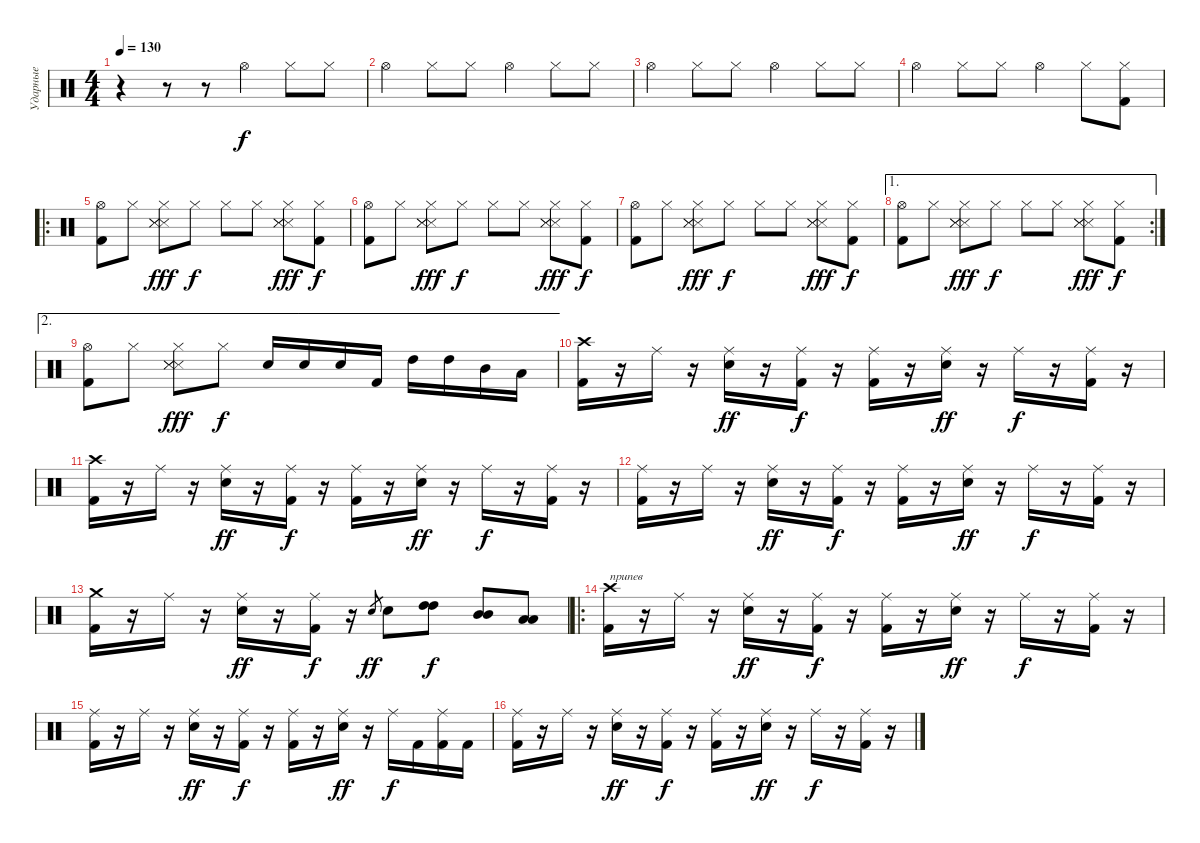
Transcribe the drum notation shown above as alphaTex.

\track ("Ударные" "Ударные") {instrument percussion}
\staff {score}
\articulation defaults
\ts (4 4)
\tempo 130
\clef neutral
\ks c
r.4{dy f} r.8 r.8 "Hi-Hat (open)".4 "Hi-Hat (closed)".8 "Hi-Hat (closed)".8 |
"Hi-Hat (open)".4 "Hi-Hat (closed)".8 "Hi-Hat (closed)".8 "Hi-Hat (open)".4 "Hi-Hat (closed)".8 "Hi-Hat (closed)".8 |
"Hi-Hat (open)".4 "Hi-Hat (closed)".8 "Hi-Hat (closed)".8 "Hi-Hat (open)".4 "Hi-Hat (closed)".8 "Hi-Hat (closed)".8 |
"Hi-Hat (open)".4 "Hi-Hat (closed)".8 "Hi-Hat (closed)".8 "Hi-Hat (open)".4 "Hi-Hat (closed)".8 ("Kick (hit) 2" "Hi-Hat (closed)").8 |
\ro
("Kick (hit) 2" "Hi-Hat (open)").8 "Hi-Hat (closed)".8 ("Hi-Hat (closed)" "Snare (side stick) 3" "Snare (side stick) 3" "Snare (side stick) 3").8{dy fff} "Hi-Hat (closed)".8{dy f} "Hi-Hat (closed)".8 "Hi-Hat (closed)".8 ("Hi-Hat (closed)" "Snare (side stick) 3" "Snare (side stick) 3" "Snare (side stick) 3").8{dy fff} ("Hi-Hat (closed)" "Kick (hit) 2").8{dy f} |
("Kick (hit) 2" "Hi-Hat (open)").8 "Hi-Hat (closed)".8 ("Hi-Hat (closed)" "Snare (side stick) 3" "Snare (side stick) 3" "Snare (side stick) 3").8{dy fff} "Hi-Hat (closed)".8{dy f} "Hi-Hat (closed)".8 "Hi-Hat (closed)".8 ("Hi-Hat (closed)" "Snare (side stick) 3" "Snare (side stick) 3" "Snare (side stick) 3").8{dy fff} ("Hi-Hat (closed)" "Kick (hit) 2").8{dy f} |
("Kick (hit) 2" "Hi-Hat (open)").8 "Hi-Hat (closed)".8 ("Hi-Hat (closed)" "Snare (side stick) 3" "Snare (side stick) 3" "Snare (side stick) 3").8{dy fff} "Hi-Hat (closed)".8{dy f} "Hi-Hat (closed)".8 "Hi-Hat (closed)".8 ("Hi-Hat (closed)" "Snare (side stick) 3" "Snare (side stick) 3" "Snare (side stick) 3").8{dy fff} ("Hi-Hat (closed)" "Kick (hit) 2").8{dy f} |
\ae 1
\rc 2
("Kick (hit) 2" "Hi-Hat (open)").8 "Hi-Hat (closed)".8 ("Hi-Hat (closed)" "Snare (side stick) 3" "Snare (side stick) 3" "Snare (side stick) 3").8{dy fff} "Hi-Hat (closed)".8{dy f} "Hi-Hat (closed)".8 "Hi-Hat (closed)".8 ("Hi-Hat (closed)" "Snare (side stick) 3" "Snare (side stick) 3" "Snare (side stick) 3").8{dy fff} ("Hi-Hat (closed)" "Kick (hit) 2").8{dy f} |
\ae 2
("Kick (hit) 2" "Hi-Hat (open)").8 "Hi-Hat (closed)".8 ("Hi-Hat (closed)" "Snare (side stick) 3" "Snare (side stick) 3" "Snare (side stick) 3").8{dy fff} "Hi-Hat (closed)".8{dy f} "Electric Snare (hit)".16 "Electric Snare (hit)".16 "Electric Snare (hit)".16 "Kick (hit) 2".16 "High Tom (hit)".16 "High Tom (hit)".16 "Mid Tom (hit)".16 "Low Tom (hit)".16 |
("Kick (hit) 2" "Crash high (hit)").16 r.16 "Ride (middle)".16 r.16 ("Electric Snare (hit)" "Ride (middle)").16{dy ff} r.16 ("Kick (hit) 2" "Ride (middle)").16{dy f} r.16 ("Kick (hit) 2" "Ride (middle)").16 r.16 ("Electric Snare (hit)" "Ride (middle)").16{dy ff} r.16 "Ride (middle)".16{dy f} r.16 ("Kick (hit) 2" "Ride (middle)").16 r.16 |
("Kick (hit) 2" "Crash high (hit)").16 r.16 "Ride (middle)".16 r.16 ("Electric Snare (hit)" "Ride (middle)").16{dy ff} r.16 ("Kick (hit) 2" "Ride (middle)").16{dy f} r.16 ("Kick (hit) 2" "Ride (middle)").16 r.16 ("Electric Snare (hit)" "Ride (middle)").16{dy ff} r.16 "Ride (middle)".16{dy f} r.16 ("Kick (hit) 2" "Ride (middle)").16 r.16 |
("Kick (hit) 2" "Ride (middle)").16 r.16 "Ride (middle)".16 r.16 ("Electric Snare (hit)" "Ride (middle)").16{dy ff} r.16 ("Kick (hit) 2" "Ride (middle)").16{dy f} r.16 ("Kick (hit) 2" "Ride (middle)").16 r.16 ("Electric Snare (hit)" "Ride (middle)").16{dy ff} r.16 "Ride (middle)".16{dy f} r.16 ("Kick (hit) 2" "Ride (middle)").16 r.16 |
("Kick (hit) 2" "Crash medium (hit)").16 r.16 "Ride (middle)".16 r.16 ("Electric Snare (hit)" "Ride (middle)").16{dy ff} r.16 ("Kick (hit) 2" "Ride (middle)").16{dy f} r.16 "Electric Snare (hit)".8{gr dy ff} "Electric Snare (hit)".8 ("High Tom (hit)" "High Tom (hit)").8{dy f} ("Mid Tom (hit)" "Mid Tom (hit)").8 ("Low Tom (hit)" "Low Tom (hit)").8 |
\ro
("Kick (hit) 2" "Crash high (hit)").16{txt "припев"} r.16 "Ride (middle)".16 r.16 ("Electric Snare (hit)" "Ride (middle)").16{dy ff} r.16 ("Kick (hit) 2" "Ride (middle)").16{dy f} r.16 ("Kick (hit) 2" "Ride (middle)").16 r.16 ("Electric Snare (hit)" "Ride (middle)").16{dy ff} r.16 "Ride (middle)".16{dy f} r.16 ("Kick (hit) 2" "Ride (middle)").16 r.16 |
("Kick (hit) 2" "Ride (middle)").16 r.16 "Ride (middle)".16 r.16 ("Electric Snare (hit)" "Ride (middle)").16{dy ff} r.16 ("Kick (hit) 2" "Ride (middle)").16{dy f} r.16 ("Kick (hit) 2" "Ride (middle)").16 r.16 ("Electric Snare (hit)" "Ride (middle)").16{dy ff} r.16 "Ride (middle)".16{dy f} "Kick (hit) 2".16 ("Kick (hit) 2" "Ride (middle)").16 "Kick (hit) 2".16 |
("Kick (hit) 2" "Ride (middle)").16 r.16 "Ride (middle)".16 r.16 ("Electric Snare (hit)" "Ride (middle)").16{dy ff} r.16 ("Kick (hit) 2" "Ride (middle)").16{dy f} r.16 ("Kick (hit) 2" "Ride (middle)").16 r.16 ("Electric Snare (hit)" "Ride (middle)").16{dy ff} r.16 "Ride (middle)".16{dy f} r.16 ("Kick (hit) 2" "Ride (middle)").16 r.16
